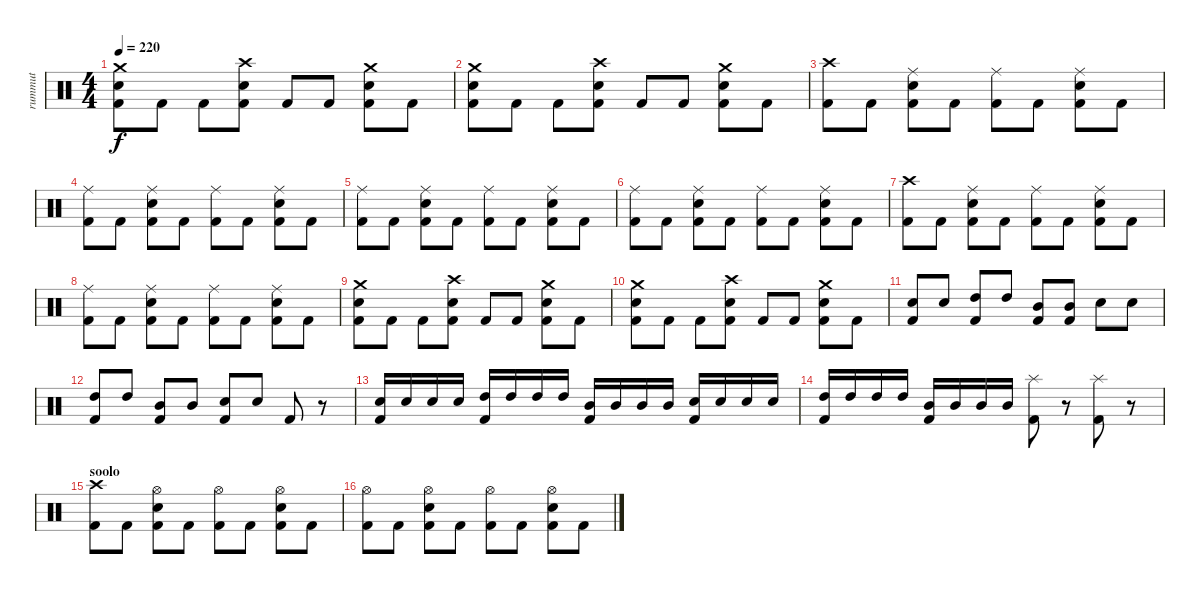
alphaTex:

\track ("rummut" "rummut") {instrument percussion}
\staff {score}
\articulation defaults
\ts (4 4)
\tempo 220
\clef neutral
\ks c
("Crash medium (hit)" "Electric Snare (hit)" "Kick (hit) 2").8{dy f} "Kick (hit) 2".8 "Kick (hit) 2".8 ("Crash high (hit)" "Electric Snare (hit)" "Kick (hit) 2").8 "Kick (hit) 2".8 "Kick (hit) 2".8 ("Crash medium (hit)" "Electric Snare (hit)" "Kick (hit) 2").8 "Kick (hit) 2".8 |
("Crash medium (hit)" "Electric Snare (hit)" "Kick (hit) 2").8 "Kick (hit) 2".8 "Kick (hit) 2".8 ("Crash high (hit)" "Electric Snare (hit)" "Kick (hit) 2").8 "Kick (hit) 2".8 "Kick (hit) 2".8 ("Crash medium (hit)" "Electric Snare (hit)" "Kick (hit) 2").8 "Kick (hit) 2".8 |
("Crash high (hit)" "Kick (hit) 2").8 "Kick (hit) 2".8 ("Ride (middle)" "Electric Snare (hit)" "Kick (hit) 2").8 "Kick (hit) 2".8 ("Ride (middle)" "Kick (hit) 2").8 "Kick (hit) 2".8 ("Ride (middle)" "Electric Snare (hit)" "Kick (hit) 2").8 "Kick (hit) 2".8 |
("Ride (middle)" "Kick (hit) 2").8 "Kick (hit) 2".8 ("Ride (middle)" "Electric Snare (hit)" "Kick (hit) 2").8 "Kick (hit) 2".8 ("Ride (middle)" "Kick (hit) 2").8 "Kick (hit) 2".8 ("Ride (middle)" "Electric Snare (hit)" "Kick (hit) 2").8 "Kick (hit) 2".8 |
("Ride (middle)" "Kick (hit) 2").8 "Kick (hit) 2".8 ("Ride (middle)" "Electric Snare (hit)" "Kick (hit) 2").8 "Kick (hit) 2".8 ("Ride (middle)" "Kick (hit) 2").8 "Kick (hit) 2".8 ("Ride (middle)" "Electric Snare (hit)" "Kick (hit) 2").8 "Kick (hit) 2".8 |
("Ride (middle)" "Kick (hit) 2").8 "Kick (hit) 2".8 ("Ride (middle)" "Electric Snare (hit)" "Kick (hit) 2").8 "Kick (hit) 2".8 ("Ride (middle)" "Kick (hit) 2").8 "Kick (hit) 2".8 ("Ride (middle)" "Electric Snare (hit)" "Kick (hit) 2").8 "Kick (hit) 2".8 |
("Crash high (hit)" "Kick (hit) 2").8 "Kick (hit) 2".8 ("Ride (middle)" "Electric Snare (hit)" "Kick (hit) 2").8 "Kick (hit) 2".8 ("Ride (middle)" "Kick (hit) 2").8 "Kick (hit) 2".8 ("Ride (middle)" "Electric Snare (hit)" "Kick (hit) 2").8 "Kick (hit) 2".8 |
("Ride (middle)" "Kick (hit) 2").8 "Kick (hit) 2".8 ("Ride (middle)" "Electric Snare (hit)" "Kick (hit) 2").8 "Kick (hit) 2".8 ("Ride (middle)" "Kick (hit) 2").8 "Kick (hit) 2".8 ("Ride (middle)" "Electric Snare (hit)" "Kick (hit) 2").8 "Kick (hit) 2".8 |
("Crash medium (hit)" "Electric Snare (hit)" "Kick (hit) 2").8 "Kick (hit) 2".8 "Kick (hit) 2".8 ("Crash high (hit)" "Electric Snare (hit)" "Kick (hit) 2").8 "Kick (hit) 2".8 "Kick (hit) 2".8 ("Crash medium (hit)" "Electric Snare (hit)" "Kick (hit) 2").8 "Kick (hit) 2".8 |
("Crash medium (hit)" "Electric Snare (hit)" "Kick (hit) 2").8 "Kick (hit) 2".8 "Kick (hit) 2".8 ("Crash high (hit)" "Electric Snare (hit)" "Kick (hit) 2").8 "Kick (hit) 2".8 "Kick (hit) 2".8 ("Crash medium (hit)" "Electric Snare (hit)" "Kick (hit) 2").8 "Kick (hit) 2".8 |
("Electric Snare (hit)" "Kick (hit) 2").8 "Electric Snare (hit)".8 ("High Tom (hit)" "Kick (hit) 2").8 "High Tom (hit)".8 ("Mid Tom (hit)" "Kick (hit) 2").8 ("Mid Tom (hit)" "Kick (hit) 2").8 "Electric Snare (hit)".8 "Electric Snare (hit)".8 |
("High Tom (hit)" "Kick (hit) 2").8 "High Tom (hit)".8 ("Mid Tom (hit)" "Kick (hit) 2").8 "Mid Tom (hit)".8 ("Electric Snare (hit)" "Kick (hit) 2").8 "Electric Snare (hit)".8 "Kick (hit) 2".8 r.8 |
("Electric Snare (hit)" "Kick (hit) 2").16 "Electric Snare (hit)".16 "Electric Snare (hit)".16 "Electric Snare (hit)".16 ("High Tom (hit)" "Kick (hit) 2").16 "High Tom (hit)".16 "High Tom (hit)".16 "High Tom (hit)".16 ("Mid Tom (hit)" "Kick (hit) 2").16 "Mid Tom (hit)".16 "Mid Tom (hit)".16 "Mid Tom (hit)".16 ("Electric Snare (hit)" "Kick (hit) 2").16 "Electric Snare (hit)".16 "Electric Snare (hit)".16 "Electric Snare (hit)".16 |
("High Tom (hit)" "Kick (hit) 2").16 "High Tom (hit)".16 "High Tom (hit)".16 "High Tom (hit)".16 ("Mid Tom (hit)" "Kick (hit) 2").16 "Mid Tom (hit)".16 "Mid Tom (hit)".16 "Mid Tom (hit)".16 ("Splash (hit)" "Kick (hit) 2").8 r.8 ("Splash (hit)" "Kick (hit) 2").8 r.8 |
\section ("" "soolo")
("Crash high (hit)" "Kick (hit) 2").8 "Kick (hit) 2".8 ("Hi-Hat (open)" "Electric Snare (hit)" "Kick (hit) 2").8 "Kick (hit) 2".8 ("Hi-Hat (open)" "Kick (hit) 2").8 "Kick (hit) 2".8 ("Hi-Hat (open)" "Electric Snare (hit)" "Kick (hit) 2").8 "Kick (hit) 2".8 |
("Hi-Hat (open)" "Kick (hit) 2").8 "Kick (hit) 2".8 ("Hi-Hat (open)" "Electric Snare (hit)" "Kick (hit) 2").8 "Kick (hit) 2".8 ("Hi-Hat (open)" "Kick (hit) 2").8 "Kick (hit) 2".8 ("Hi-Hat (open)" "Electric Snare (hit)" "Kick (hit) 2").8 "Kick (hit) 2".8
